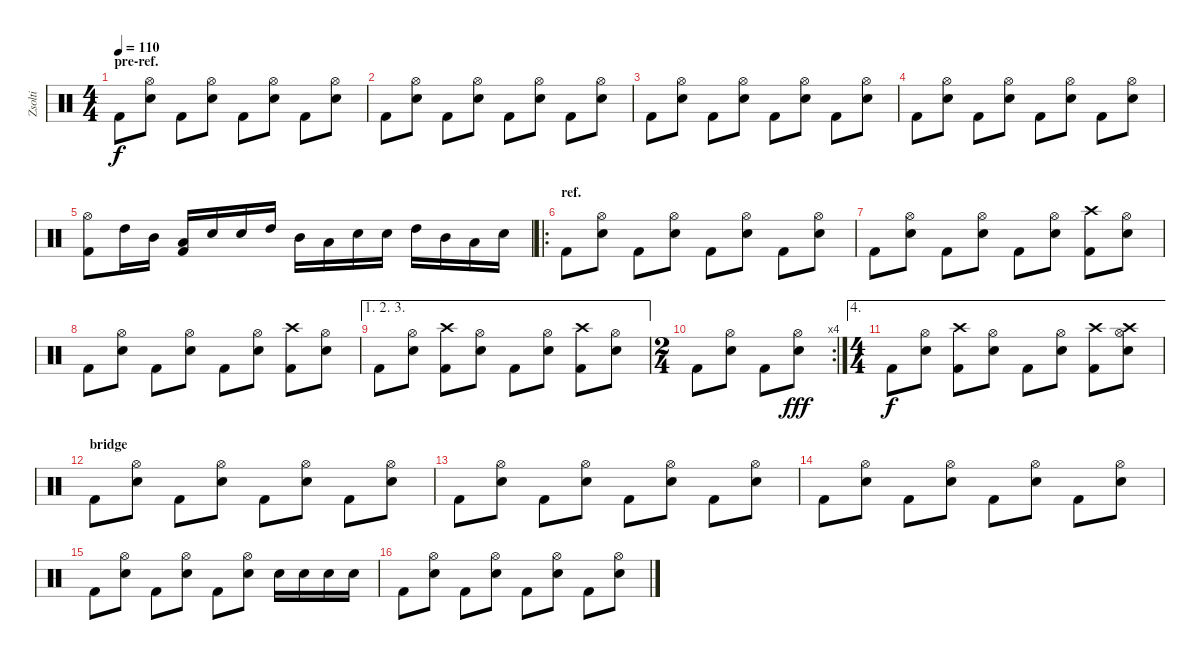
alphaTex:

\track ("Zsolti" "Zsolti") {instrument percussion}
\staff {score}
\articulation defaults
\ts (4 4)
\section ("" "pre-ref.")
\tempo 110
\clef neutral
\ks c "Kick (hit) 2".8{dy f}
("Hi-Hat (open)" "Snare (hit) 2").8 "Kick (hit) 2".8 ("Hi-Hat (open)" "Snare (hit) 2").8 "Kick (hit) 2".8 ("Hi-Hat (open)" "Snare (hit) 2").8 "Kick (hit) 2".8 ("Hi-Hat (open)" "Snare (hit) 2").8 |
"Kick (hit) 2".8 ("Hi-Hat (open)" "Snare (hit) 2").8 "Kick (hit) 2".8 ("Hi-Hat (open)" "Snare (hit) 2").8 "Kick (hit) 2".8 ("Hi-Hat (open)" "Snare (hit) 2").8 "Kick (hit) 2".8 ("Hi-Hat (open)" "Snare (hit) 2").8 |
"Kick (hit) 2".8 ("Hi-Hat (open)" "Snare (hit) 2").8 "Kick (hit) 2".8 ("Hi-Hat (open)" "Snare (hit) 2").8 "Kick (hit) 2".8 ("Hi-Hat (open)" "Snare (hit) 2").8 "Kick (hit) 2".8 ("Hi-Hat (open)" "Snare (hit) 2").8 |
"Kick (hit) 2".8 ("Hi-Hat (open)" "Snare (hit) 2").8 "Kick (hit) 2".8 ("Hi-Hat (open)" "Snare (hit) 2").8 "Kick (hit) 2".8 ("Hi-Hat (open)" "Snare (hit) 2").8 "Kick (hit) 2".8 ("Hi-Hat (open)" "Snare (hit) 2").8 |
("Hi-Hat (open)" "Kick (hit) 2").8 "High Tom (hit)".16 "Mid Tom (hit)".16 ("Low Tom (hit)" "Kick (hit) 2").16 "Snare (hit) 2".16 "Snare (hit) 2".16 "High Tom (hit)".16 "Mid Tom (hit)".16 "Low Tom (hit)".16 "Snare (hit) 2".16 "Snare (hit) 2".16 "High Tom (hit)".16 "Mid Tom (hit)".16 "Low Tom (hit)".16 "Snare (hit) 2".16 |
\ro
\section ("" "ref.")
"Kick (hit) 2".8 ("Hi-Hat (open)" "Snare (hit) 2").8 "Kick (hit) 2".8 ("Hi-Hat (open)" "Snare (hit) 2").8 "Kick (hit) 2".8 ("Hi-Hat (open)" "Snare (hit) 2").8 "Kick (hit) 2".8 ("Hi-Hat (open)" "Snare (hit) 2").8 |
"Kick (hit) 2".8 ("Hi-Hat (open)" "Snare (hit) 2").8 "Kick (hit) 2".8 ("Hi-Hat (open)" "Snare (hit) 2").8 "Kick (hit) 2".8 ("Hi-Hat (open)" "Snare (hit) 2").8 ("Crash high (hit)" "Kick (hit) 2").8 ("Hi-Hat (open)" "Snare (hit) 2").8 |
"Kick (hit) 2".8 ("Hi-Hat (open)" "Snare (hit) 2").8 "Kick (hit) 2".8 ("Hi-Hat (open)" "Snare (hit) 2").8 "Kick (hit) 2".8 ("Hi-Hat (open)" "Snare (hit) 2").8 ("Crash high (hit)" "Kick (hit) 2").8 ("Hi-Hat (open)" "Snare (hit) 2").8 |
\ae (1 2 3)
"Kick (hit) 2".8 ("Hi-Hat (open)" "Snare (hit) 2").8 ("Crash high (hit)" "Kick (hit) 2").8 ("Hi-Hat (open)" "Snare (hit) 2").8 "Kick (hit) 2".8 ("Hi-Hat (open)" "Snare (hit) 2").8 ("Crash high (hit)" "Kick (hit) 2").8 ("Hi-Hat (open)" "Snare (hit) 2").8 |
\rc 4
\ts (2 4)
"Kick (hit) 2".8 ("Hi-Hat (open)" "Snare (hit) 2").8 "Kick (hit) 2".8 ("Hi-Hat (open)" "Snare (hit) 2").8{dy fff} |
\ae 4
\ts (4 4)
"Kick (hit) 2".8{dy f} ("Hi-Hat (open)" "Snare (hit) 2").8 ("Crash high (hit)" "Kick (hit) 2").8 ("Hi-Hat (open)" "Snare (hit) 2").8 "Kick (hit) 2".8 ("Hi-Hat (open)" "Snare (hit) 2").8 ("Crash high (hit)" "Kick (hit) 2").8 ("Crash high (hit)" "Hi-Hat (open)" "Snare (hit) 2").8 |
\section ("" "bridge")
"Kick (hit) 2".8 ("Hi-Hat (open)" "Snare (hit) 2").8 "Kick (hit) 2".8 ("Hi-Hat (open)" "Snare (hit) 2").8 "Kick (hit) 2".8 ("Hi-Hat (open)" "Snare (hit) 2").8 "Kick (hit) 2".8 ("Hi-Hat (open)" "Snare (hit) 2").8 |
"Kick (hit) 2".8 ("Hi-Hat (open)" "Snare (hit) 2").8 "Kick (hit) 2".8 ("Hi-Hat (open)" "Snare (hit) 2").8 "Kick (hit) 2".8 ("Hi-Hat (open)" "Snare (hit) 2").8 "Kick (hit) 2".8 ("Hi-Hat (open)" "Snare (hit) 2").8 |
"Kick (hit) 2".8 ("Hi-Hat (open)" "Snare (hit) 2").8 "Kick (hit) 2".8 ("Hi-Hat (open)" "Snare (hit) 2").8 "Kick (hit) 2".8 ("Hi-Hat (open)" "Snare (hit) 2").8 "Kick (hit) 2".8 ("Hi-Hat (open)" "Snare (hit) 2").8 |
"Kick (hit) 2".8 ("Hi-Hat (open)" "Snare (hit) 2").8 "Kick (hit) 2".8 ("Hi-Hat (open)" "Snare (hit) 2").8 "Kick (hit) 2".8 ("Hi-Hat (open)" "Snare (hit) 2").8 "Snare (hit) 2".16 "Snare (hit) 2".16 "Snare (hit) 2".16 "Snare (hit) 2".16 |
"Kick (hit) 2".8 ("Hi-Hat (open)" "Snare (hit) 2").8 "Kick (hit) 2".8 ("Hi-Hat (open)" "Snare (hit) 2").8 "Kick (hit) 2".8 ("Hi-Hat (open)" "Snare (hit) 2").8 "Kick (hit) 2".8 ("Hi-Hat (open)" "Snare (hit) 2").8
